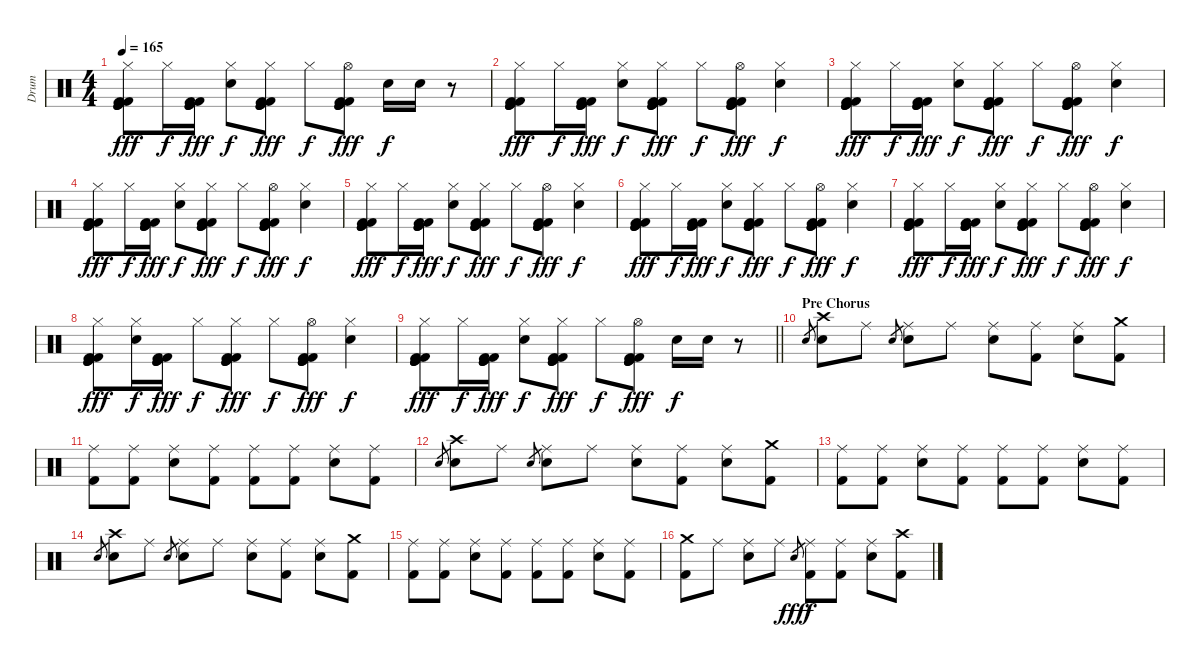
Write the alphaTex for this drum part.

\track ("Drum" "Drum") {instrument percussion}
\staff {score}
\articulation defaults
\ts (4 4)
\tempo 165
\clef neutral
\ks c
("Hi-Hat (closed)" "Kick (hit)" "Kick (hit)" "Kick (hit)" "Kick (hit) 2" "Kick (hit) 2").8{dy fff} "Hi-Hat (closed)".16{dy f} ("Kick (hit)" "Kick (hit)" "Kick (hit)" "Kick (hit) 2" "Kick (hit) 2").16{dy fff} ("Hi-Hat (closed)" "Electric Snare (hit)").8{dy f} ("Hi-Hat (closed)" "Kick (hit)" "Kick (hit)" "Kick (hit)" "Kick (hit) 2" "Kick (hit) 2").8{dy fff} "Hi-Hat (closed)".8{dy f} ("Hi-Hat (open)" "Kick (hit)" "Kick (hit)" "Kick (hit)" "Kick (hit) 2" "Kick (hit) 2").8{dy fff} "Electric Snare (hit)".16{dy f} "Electric Snare (hit)".16 r.8 |
("Hi-Hat (closed)" "Kick (hit)" "Kick (hit)" "Kick (hit)" "Kick (hit) 2" "Kick (hit) 2").8{dy fff} "Hi-Hat (closed)".16{dy f} ("Kick (hit)" "Kick (hit)" "Kick (hit)" "Kick (hit) 2" "Kick (hit) 2").16{dy fff} ("Hi-Hat (closed)" "Electric Snare (hit)").8{dy f} ("Hi-Hat (closed)" "Kick (hit)" "Kick (hit)" "Kick (hit)" "Kick (hit) 2" "Kick (hit) 2").8{dy fff} "Hi-Hat (closed)".8{dy f} ("Hi-Hat (open)" "Kick (hit)" "Kick (hit)" "Kick (hit)" "Kick (hit) 2" "Kick (hit) 2").8{dy fff} ("Hi-Hat (closed)" "Electric Snare (hit)").4{dy f} |
("Hi-Hat (closed)" "Kick (hit)" "Kick (hit)" "Kick (hit)" "Kick (hit) 2" "Kick (hit) 2").8{dy fff} "Hi-Hat (closed)".16{dy f} ("Kick (hit)" "Kick (hit)" "Kick (hit)" "Kick (hit) 2" "Kick (hit) 2").16{dy fff} ("Hi-Hat (closed)" "Electric Snare (hit)").8{dy f} ("Hi-Hat (closed)" "Kick (hit)" "Kick (hit)" "Kick (hit)" "Kick (hit) 2" "Kick (hit) 2").8{dy fff} "Hi-Hat (closed)".8{dy f} ("Hi-Hat (open)" "Kick (hit)" "Kick (hit)" "Kick (hit)" "Kick (hit) 2" "Kick (hit) 2").8{dy fff} ("Hi-Hat (closed)" "Electric Snare (hit)").4{dy f} |
("Hi-Hat (closed)" "Kick (hit)" "Kick (hit)" "Kick (hit)" "Kick (hit) 2" "Kick (hit) 2").8{dy fff} "Hi-Hat (closed)".16{dy f} ("Kick (hit)" "Kick (hit)" "Kick (hit)" "Kick (hit) 2" "Kick (hit) 2").16{dy fff} ("Hi-Hat (closed)" "Electric Snare (hit)").8{dy f} ("Hi-Hat (closed)" "Kick (hit)" "Kick (hit)" "Kick (hit)" "Kick (hit) 2" "Kick (hit) 2").8{dy fff} "Hi-Hat (closed)".8{dy f} ("Hi-Hat (open)" "Kick (hit)" "Kick (hit)" "Kick (hit)" "Kick (hit) 2" "Kick (hit) 2").8{dy fff} ("Hi-Hat (closed)" "Electric Snare (hit)").4{dy f} |
("Hi-Hat (closed)" "Kick (hit)" "Kick (hit)" "Kick (hit)" "Kick (hit) 2" "Kick (hit) 2").8{dy fff} "Hi-Hat (closed)".16{dy f} ("Kick (hit)" "Kick (hit)" "Kick (hit)" "Kick (hit) 2" "Kick (hit) 2").16{dy fff} ("Hi-Hat (closed)" "Electric Snare (hit)").8{dy f} ("Hi-Hat (closed)" "Kick (hit)" "Kick (hit)" "Kick (hit)" "Kick (hit) 2" "Kick (hit) 2").8{dy fff} "Hi-Hat (closed)".8{dy f} ("Hi-Hat (open)" "Kick (hit)" "Kick (hit)" "Kick (hit)" "Kick (hit) 2" "Kick (hit) 2").8{dy fff} ("Hi-Hat (closed)" "Electric Snare (hit)").4{dy f} |
("Hi-Hat (closed)" "Kick (hit)" "Kick (hit)" "Kick (hit)" "Kick (hit) 2" "Kick (hit) 2").8{dy fff} "Hi-Hat (closed)".16{dy f} ("Kick (hit)" "Kick (hit)" "Kick (hit)" "Kick (hit) 2" "Kick (hit) 2").16{dy fff} ("Hi-Hat (closed)" "Electric Snare (hit)").8{dy f} ("Hi-Hat (closed)" "Kick (hit)" "Kick (hit)" "Kick (hit)" "Kick (hit) 2" "Kick (hit) 2").8{dy fff} "Hi-Hat (closed)".8{dy f} ("Hi-Hat (open)" "Kick (hit)" "Kick (hit)" "Kick (hit)" "Kick (hit) 2" "Kick (hit) 2").8{dy fff} ("Hi-Hat (closed)" "Electric Snare (hit)").4{dy f} |
("Hi-Hat (closed)" "Kick (hit)" "Kick (hit)" "Kick (hit)" "Kick (hit) 2" "Kick (hit) 2").8{dy fff} "Hi-Hat (closed)".16{dy f} ("Kick (hit)" "Kick (hit)" "Kick (hit)" "Kick (hit) 2" "Kick (hit) 2").16{dy fff} ("Hi-Hat (closed)" "Electric Snare (hit)").8{dy f} ("Hi-Hat (closed)" "Kick (hit)" "Kick (hit)" "Kick (hit)" "Kick (hit) 2" "Kick (hit) 2").8{dy fff} "Hi-Hat (closed)".8{dy f} ("Hi-Hat (open)" "Kick (hit)" "Kick (hit)" "Kick (hit)" "Kick (hit) 2" "Kick (hit) 2").8{dy fff} ("Hi-Hat (closed)" "Electric Snare (hit)").4{dy f} |
("Hi-Hat (closed)" "Kick (hit)" "Kick (hit)" "Kick (hit)" "Kick (hit) 2" "Kick (hit) 2").8{dy fff} ("Hi-Hat (closed)" "Electric Snare (hit)").16{dy f} ("Kick (hit)" "Kick (hit)" "Kick (hit)" "Kick (hit) 2" "Kick (hit) 2").16{dy fff} "Hi-Hat (closed)".8{dy f} ("Hi-Hat (closed)" "Kick (hit)" "Kick (hit)" "Kick (hit)" "Kick (hit) 2" "Kick (hit) 2").8{dy fff} "Hi-Hat (closed)".8{dy f} ("Hi-Hat (open)" "Kick (hit)" "Kick (hit)" "Kick (hit)" "Kick (hit) 2" "Kick (hit) 2").8{dy fff} ("Hi-Hat (closed)" "Electric Snare (hit)").4{dy f} |
\barLineRight lightlight
("Hi-Hat (closed)" "Kick (hit)" "Kick (hit)" "Kick (hit)" "Kick (hit) 2" "Kick (hit) 2").8{dy fff} "Hi-Hat (closed)".16{dy f} ("Kick (hit)" "Kick (hit)" "Kick (hit)" "Kick (hit) 2" "Kick (hit) 2").16{dy fff} ("Hi-Hat (closed)" "Electric Snare (hit)").8{dy f} ("Hi-Hat (closed)" "Kick (hit)" "Kick (hit)" "Kick (hit)" "Kick (hit) 2" "Kick (hit) 2").8{dy fff} "Hi-Hat (closed)".8{dy f} ("Hi-Hat (open)" "Kick (hit)" "Kick (hit)" "Kick (hit)" "Kick (hit) 2" "Kick (hit) 2").8{dy fff} "Electric Snare (hit)".16{dy f} "Electric Snare (hit)".16 r.8 |
\section ("" "Pre Chorus")
"Electric Snare (hit)".8{gr} ("Crash high (hit)" "Electric Snare (hit)").8 "Ride (middle)".8 "Electric Snare (hit)".8{gr} ("Ride (middle)" "Electric Snare (hit)").8 "Ride (middle)".8 ("Ride (middle)" "Electric Snare (hit)").8 ("Ride (middle)" "Kick (hit) 2").8 ("Ride (middle)" "Electric Snare (hit)").8 ("Crash medium (hit)" "Kick (hit) 2").8 |
("Ride (middle)" "Kick (hit) 2").8 ("Ride (middle)" "Kick (hit) 2").8 ("Ride (middle)" "Electric Snare (hit)").8 ("Ride (middle)" "Kick (hit) 2").8 ("Ride (middle)" "Kick (hit) 2").8 ("Ride (middle)" "Kick (hit) 2").8 ("Ride (middle)" "Electric Snare (hit)").8 ("Ride (middle)" "Kick (hit) 2").8 |
"Electric Snare (hit)".8{gr} ("Crash high (hit)" "Electric Snare (hit)").8 "Ride (middle)".8 "Electric Snare (hit)".8{gr} ("Ride (middle)" "Electric Snare (hit)").8 "Ride (middle)".8 ("Ride (middle)" "Electric Snare (hit)").8 ("Ride (middle)" "Kick (hit) 2").8 ("Ride (middle)" "Electric Snare (hit)").8 ("Crash medium (hit)" "Kick (hit) 2").8 |
("Ride (middle)" "Kick (hit) 2").8 ("Ride (middle)" "Kick (hit) 2").8 ("Ride (middle)" "Electric Snare (hit)").8 ("Ride (middle)" "Kick (hit) 2").8 ("Ride (middle)" "Kick (hit) 2").8 ("Ride (middle)" "Kick (hit) 2").8 ("Ride (middle)" "Electric Snare (hit)").8 ("Ride (middle)" "Kick (hit) 2").8 |
"Electric Snare (hit)".8{gr} ("Crash high (hit)" "Electric Snare (hit)").8 "Ride (middle)".8 "Electric Snare (hit)".8{gr} ("Ride (middle)" "Electric Snare (hit)").8 "Ride (middle)".8 ("Ride (middle)" "Electric Snare (hit)").8 ("Ride (middle)" "Kick (hit) 2").8 ("Ride (middle)" "Electric Snare (hit)").8 ("Crash medium (hit)" "Kick (hit) 2").8 |
("Ride (middle)" "Kick (hit) 2").8 ("Ride (middle)" "Kick (hit) 2").8 ("Ride (middle)" "Electric Snare (hit)").8 ("Ride (middle)" "Kick (hit) 2").8 ("Ride (middle)" "Kick (hit) 2").8 ("Ride (middle)" "Kick (hit) 2").8 ("Ride (middle)" "Electric Snare (hit)").8 ("Ride (middle)" "Kick (hit) 2").8 |
("Crash medium (hit)" "Kick (hit) 2").8 "Ride (middle)".8 ("Ride (middle)" "Electric Snare (hit)").8 "Ride (middle)".8 "Electric Snare (hit)".8{gr dy fff} ("Ride (middle)" "Kick (hit) 2").8{dy f} ("Ride (middle)" "Kick (hit) 2").8 ("Ride (middle)" "Electric Snare (hit)").8 ("Crash high (hit)" "Kick (hit) 2").8
